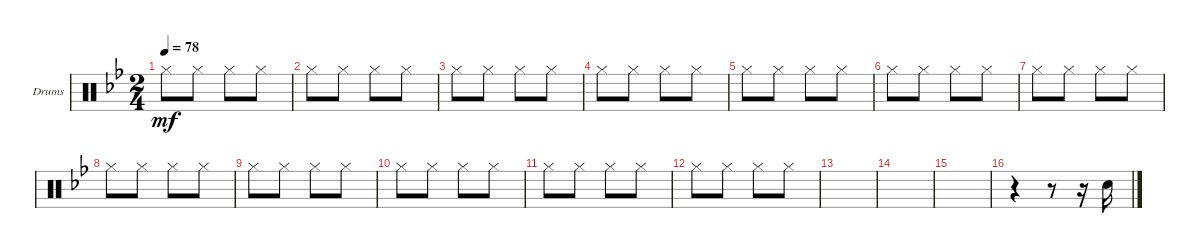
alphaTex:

\defaultSystemsLayout 4
\bracketExtendMode groupsimilarinstruments
\firstSystemTrackNameOrientation horizontal
\otherSystemsTrackNameOrientation horizontal
\track ("Катя" "Drums") {instrument percussion}
\staff {score}
\articulation defaults
\ts (2 4)
\tempo 78
\clef neutral
\ks gminor "Hi-Hat (closed)".8{dy mf} "Hi-Hat (closed)".8 "Hi-Hat (closed)".8 "Hi-Hat (closed)".8
|
"Hi-Hat (closed)".8 "Hi-Hat (closed)".8 "Hi-Hat (closed)".8 "Hi-Hat (closed)".8 |
"Hi-Hat (closed)".8 "Hi-Hat (closed)".8 "Hi-Hat (closed)".8 "Hi-Hat (closed)".8 |
"Hi-Hat (closed)".8 "Hi-Hat (closed)".8 "Hi-Hat (closed)".8 "Hi-Hat (closed)".8 |
"Hi-Hat (closed)".8 "Hi-Hat (closed)".8 "Hi-Hat (closed)".8 "Hi-Hat (closed)".8 |
"Hi-Hat (closed)".8 "Hi-Hat (closed)".8 "Hi-Hat (closed)".8 "Hi-Hat (closed)".8 |
"Hi-Hat (closed)".8 "Hi-Hat (closed)".8 "Hi-Hat (closed)".8 "Hi-Hat (closed)".8 |
"Hi-Hat (closed)".8 "Hi-Hat (closed)".8 "Hi-Hat (closed)".8 "Hi-Hat (closed)".8 |
"Hi-Hat (closed)".8 "Hi-Hat (closed)".8 "Hi-Hat (closed)".8 "Hi-Hat (closed)".8 |
"Hi-Hat (closed)".8 "Hi-Hat (closed)".8 "Hi-Hat (closed)".8 "Hi-Hat (closed)".8 |
"Hi-Hat (closed)".8 "Hi-Hat (closed)".8 "Hi-Hat (closed)".8 "Hi-Hat (closed)".8 |
"Hi-Hat (closed)".8 "Hi-Hat (closed)".8 "Hi-Hat (closed)".8 "Hi-Hat (closed)".8 |
|
|
|
r.4 r.8 r.16 "Snare (hit) 2".16
